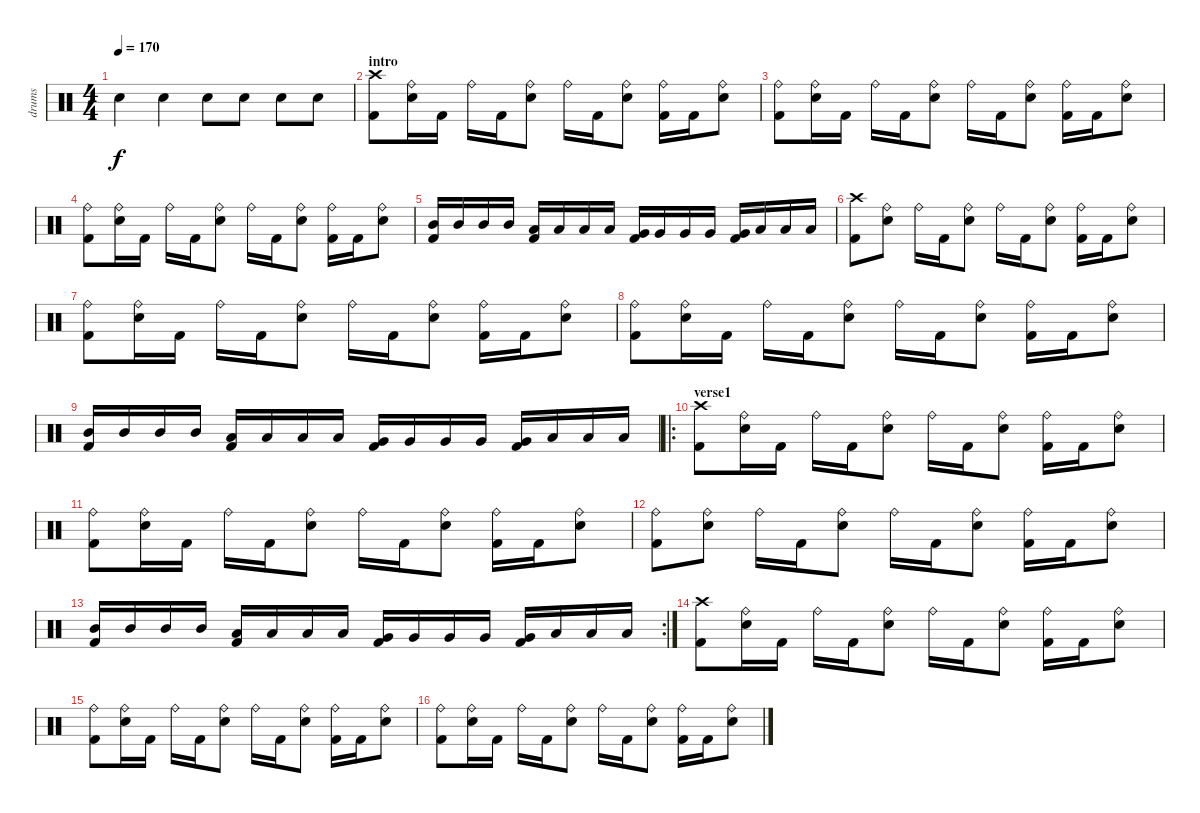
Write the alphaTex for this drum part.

\track ("drums" "drums") {instrument percussion}
\staff {score}
\articulation defaults
\ts (4 4)
\tempo 170
\clef neutral
\ks c "Electric Snare (hit)".4{dy f} "Electric Snare (hit)".4 "Electric Snare (hit)".8 "Electric Snare (hit)".8 "Electric Snare (hit)".8 "Electric Snare (hit)".8
|
\section ("" "intro")
("Crash high (hit)" "Kick (hit) 2").8 ("Ride (bell)" "Electric Snare (hit)").16 "Kick (hit) 2".16 "Ride (bell)".16 "Kick (hit) 2".16 ("Ride (bell)" "Electric Snare (hit)").8 "Ride (bell)".16 "Kick (hit) 2".16 ("Ride (bell)" "Electric Snare (hit)").8 ("Ride (bell)" "Kick (hit) 2").16 "Kick (hit) 2".16 ("Ride (bell)" "Electric Snare (hit)").8 |
("Ride (bell)" "Kick (hit) 2").8 ("Ride (bell)" "Electric Snare (hit)").16 "Kick (hit) 2".16 "Ride (bell)".16 "Kick (hit) 2".16 ("Ride (bell)" "Electric Snare (hit)").8 "Ride (bell)".16 "Kick (hit) 2".16 ("Ride (bell)" "Electric Snare (hit)").8 ("Ride (bell)" "Kick (hit) 2").16 "Kick (hit) 2".16 ("Ride (bell)" "Electric Snare (hit)").8 |
("Ride (bell)" "Kick (hit) 2").8 ("Ride (bell)" "Electric Snare (hit)").16 "Kick (hit) 2".16 "Ride (bell)".16 "Kick (hit) 2".16 ("Ride (bell)" "Electric Snare (hit)").8 "Ride (bell)".16 "Kick (hit) 2".16 ("Ride (bell)" "Electric Snare (hit)").8 ("Ride (bell)" "Kick (hit) 2").16 "Kick (hit) 2".16 ("Ride (bell)" "Electric Snare (hit)").8 |
("Mid Tom (hit)" "Kick (hit) 2").16 "Mid Tom (hit)".16 "Mid Tom (hit)".16 "Mid Tom (hit)".16 ("Low Tom (hit)" "Kick (hit) 2").16 "Low Tom (hit)".16 "Low Tom (hit)".16 "Low Tom (hit)".16 ("Very Low Tom (hit)" "Kick (hit) 2").16 "Very Low Tom (hit)".16 "Very Low Tom (hit)".16 "Very Low Tom (hit)".16 ("Very Low Tom (hit)" "Kick (hit) 2").16 "Low Floor Tom (hit)".16 "Low Floor Tom (hit)".16 "Low Floor Tom (hit)".16 |
("Crash high (hit)" "Kick (hit) 2").8 ("Ride (bell)" "Electric Snare (hit)").8 "Ride (bell)".16 "Kick (hit) 2".16 ("Ride (bell)" "Electric Snare (hit)").8 "Ride (bell)".16 "Kick (hit) 2".16 ("Ride (bell)" "Electric Snare (hit)").8 ("Ride (bell)" "Kick (hit) 2").16 "Kick (hit) 2".16 ("Ride (bell)" "Electric Snare (hit)").8 |
("Ride (bell)" "Kick (hit) 2").8 ("Ride (bell)" "Electric Snare (hit)").16 "Kick (hit) 2".16 "Ride (bell)".16 "Kick (hit) 2".16 ("Ride (bell)" "Electric Snare (hit)").8 "Ride (bell)".16 "Kick (hit) 2".16 ("Ride (bell)" "Electric Snare (hit)").8 ("Ride (bell)" "Kick (hit) 2").16 "Kick (hit) 2".16 ("Ride (bell)" "Electric Snare (hit)").8 |
("Ride (bell)" "Kick (hit) 2").8 ("Ride (bell)" "Electric Snare (hit)").16 "Kick (hit) 2".16 "Ride (bell)".16 "Kick (hit) 2".16 ("Ride (bell)" "Electric Snare (hit)").8 "Ride (bell)".16 "Kick (hit) 2".16 ("Ride (bell)" "Electric Snare (hit)").8 ("Ride (bell)" "Kick (hit) 2").16 "Kick (hit) 2".16 ("Ride (bell)" "Electric Snare (hit)").8 |
("Mid Tom (hit)" "Kick (hit) 2").16 "Mid Tom (hit)".16 "Mid Tom (hit)".16 "Mid Tom (hit)".16 ("Low Tom (hit)" "Kick (hit) 2").16 "Low Tom (hit)".16 "Low Tom (hit)".16 "Low Tom (hit)".16 ("Very Low Tom (hit)" "Kick (hit) 2").16 "Very Low Tom (hit)".16 "Very Low Tom (hit)".16 "Very Low Tom (hit)".16 ("Very Low Tom (hit)" "Kick (hit) 2").16 "Low Floor Tom (hit)".16 "Low Floor Tom (hit)".16 "Low Floor Tom (hit)".16 |
\ro
\section ("" "verse1")
("Crash high (hit)" "Kick (hit) 2").8 ("Ride (bell)" "Electric Snare (hit)").16 "Kick (hit) 2".16 "Ride (bell)".16 "Kick (hit) 2".16 ("Ride (bell)" "Electric Snare (hit)").8 "Ride (bell)".16 "Kick (hit) 2".16 ("Ride (bell)" "Electric Snare (hit)").8 ("Ride (bell)" "Kick (hit) 2").16 "Kick (hit) 2".16 ("Ride (bell)" "Electric Snare (hit)").8 |
("Ride (bell)" "Kick (hit) 2").8 ("Ride (bell)" "Electric Snare (hit)").16 "Kick (hit) 2".16 "Ride (bell)".16 "Kick (hit) 2".16 ("Ride (bell)" "Electric Snare (hit)").8 "Ride (bell)".16 "Kick (hit) 2".16 ("Ride (bell)" "Electric Snare (hit)").8 ("Ride (bell)" "Kick (hit) 2").16 "Kick (hit) 2".16 ("Ride (bell)" "Electric Snare (hit)").8 |
("Ride (bell)" "Kick (hit) 2").8 ("Ride (bell)" "Electric Snare (hit)").8 "Ride (bell)".16 "Kick (hit) 2".16 ("Ride (bell)" "Electric Snare (hit)").8 "Ride (bell)".16 "Kick (hit) 2".16 ("Ride (bell)" "Electric Snare (hit)").8 ("Ride (bell)" "Kick (hit) 2").16 "Kick (hit) 2".16 ("Ride (bell)" "Electric Snare (hit)").8 |
\rc 2
("Mid Tom (hit)" "Kick (hit) 2").16 "Mid Tom (hit)".16 "Mid Tom (hit)".16 "Mid Tom (hit)".16 ("Low Tom (hit)" "Kick (hit) 2").16 "Low Tom (hit)".16 "Low Tom (hit)".16 "Low Tom (hit)".16 ("Very Low Tom (hit)" "Kick (hit) 2").16 "Very Low Tom (hit)".16 "Very Low Tom (hit)".16 "Very Low Tom (hit)".16 ("Very Low Tom (hit)" "Kick (hit) 2").16 "Low Floor Tom (hit)".16 "Low Floor Tom (hit)".16 "Low Floor Tom (hit)".16 |
("Crash high (hit)" "Kick (hit) 2").8 ("Ride (bell)" "Electric Snare (hit)").16 "Kick (hit) 2".16 "Ride (bell)".16 "Kick (hit) 2".16 ("Ride (bell)" "Electric Snare (hit)").8 "Ride (bell)".16 "Kick (hit) 2".16 ("Ride (bell)" "Electric Snare (hit)").8 ("Ride (bell)" "Kick (hit) 2").16 "Kick (hit) 2".16 ("Ride (bell)" "Electric Snare (hit)").8 |
("Ride (bell)" "Kick (hit) 2").8 ("Ride (bell)" "Electric Snare (hit)").16 "Kick (hit) 2".16 "Ride (bell)".16 "Kick (hit) 2".16 ("Ride (bell)" "Electric Snare (hit)").8 "Ride (bell)".16 "Kick (hit) 2".16 ("Ride (bell)" "Electric Snare (hit)").8 ("Ride (bell)" "Kick (hit) 2").16 "Kick (hit) 2".16 ("Ride (bell)" "Electric Snare (hit)").8 |
("Ride (bell)" "Kick (hit) 2").8 ("Ride (bell)" "Electric Snare (hit)").16 "Kick (hit) 2".16 "Ride (bell)".16 "Kick (hit) 2".16 ("Ride (bell)" "Electric Snare (hit)").8 "Ride (bell)".16 "Kick (hit) 2".16 ("Ride (bell)" "Electric Snare (hit)").8 ("Ride (bell)" "Kick (hit) 2").16 "Kick (hit) 2".16 ("Ride (bell)" "Electric Snare (hit)").8
